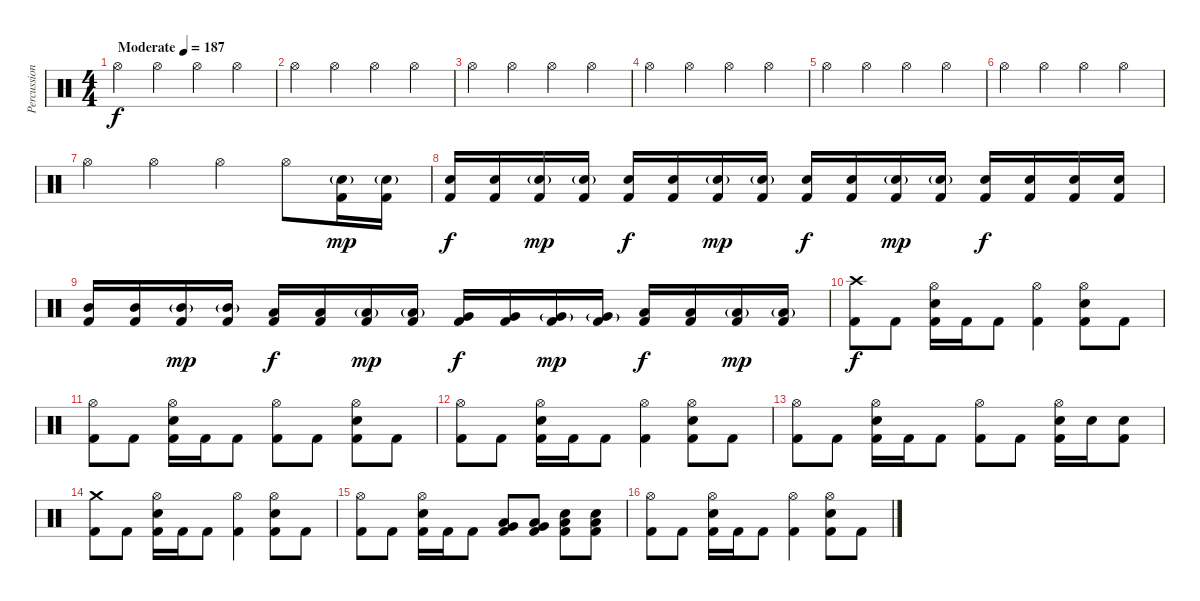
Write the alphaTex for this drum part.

\track ("Percussion" "Percussion") {instrument percussion}
\staff {score}
\articulation defaults
\ts (4 4)
\tempo (187 "Moderate")
\clef neutral
\ks c "Hi-Hat (open)".4{dy f} "Hi-Hat (open)".4 "Hi-Hat (open)".4 "Hi-Hat (open)".4
|
"Hi-Hat (open)".4 "Hi-Hat (open)".4 "Hi-Hat (open)".4 "Hi-Hat (open)".4 |
"Hi-Hat (open)".4 "Hi-Hat (open)".4 "Hi-Hat (open)".4 "Hi-Hat (open)".4 |
"Hi-Hat (open)".4 "Hi-Hat (open)".4 "Hi-Hat (open)".4 "Hi-Hat (open)".4 |
"Hi-Hat (open)".4 "Hi-Hat (open)".4 "Hi-Hat (open)".4 "Hi-Hat (open)".4 |
"Hi-Hat (open)".4 "Hi-Hat (open)".4 "Hi-Hat (open)".4 "Hi-Hat (open)".4 |
"Hi-Hat (open)".4 "Hi-Hat (open)".4 "Hi-Hat (open)".4 "Hi-Hat (open)".8 ("Electric Snare (hit)"{g} "Kick (hit) 2").16{dy mp} ("Electric Snare (hit)"{g} "Kick (hit) 2").16 |
("Electric Snare (hit)" "Kick (hit) 2").16{dy f} ("Electric Snare (hit)" "Kick (hit) 2").16 ("Electric Snare (hit)"{g} "Kick (hit) 2").16{dy mp} ("Electric Snare (hit)"{g} "Kick (hit) 2").16 ("Electric Snare (hit)" "Kick (hit) 2").16{dy f} ("Electric Snare (hit)" "Kick (hit) 2").16 ("Electric Snare (hit)"{g} "Kick (hit) 2").16{dy mp} ("Electric Snare (hit)"{g} "Kick (hit) 2").16 ("Electric Snare (hit)" "Kick (hit) 2").16{dy f} ("Electric Snare (hit)" "Kick (hit) 2").16 ("Electric Snare (hit)"{g} "Kick (hit) 2").16{dy mp} ("Electric Snare (hit)"{g} "Kick (hit) 2").16 ("Electric Snare (hit)" "Kick (hit) 2").16{dy f} ("Electric Snare (hit)" "Kick (hit) 2").16 ("Electric Snare (hit)" "Kick (hit) 2").16 ("Electric Snare (hit)" "Kick (hit) 2").16 |
("Mid Tom (hit)" "Kick (hit) 2").16 ("Mid Tom (hit)" "Kick (hit) 2").16 ("Mid Tom (hit)"{g} "Kick (hit) 2").16{dy mp} ("Mid Tom (hit)"{g} "Kick (hit) 2").16 ("Low Tom (hit)" "Kick (hit) 2").16{dy f} ("Low Tom (hit)" "Kick (hit) 2").16 ("Low Tom (hit)"{g} "Kick (hit) 2").16{dy mp} ("Low Tom (hit)"{g} "Kick (hit) 2").16 ("Very Low Tom (hit)" "Kick (hit) 2").16{dy f} ("Very Low Tom (hit)" "Kick (hit) 2").16 ("Very Low Tom (hit)"{g} "Kick (hit) 2").16{dy mp} ("Very Low Tom (hit)"{g} "Kick (hit) 2").16 ("Low Floor Tom (hit)" "Kick (hit) 2").16{dy f} ("Low Floor Tom (hit)" "Kick (hit) 2").16 ("Low Floor Tom (hit)"{g} "Kick (hit) 2").16{dy mp} ("Low Floor Tom (hit)"{g} "Kick (hit) 2").16 |
("Crash high (hit)" "Kick (hit) 2").8{dy f} "Kick (hit) 2".8 ("Hi-Hat (open)" "Electric Snare (hit)" "Kick (hit) 2").16 "Kick (hit) 2".16 "Kick (hit) 2".8 ("Hi-Hat (open)" "Kick (hit) 2").4 ("Hi-Hat (open)" "Electric Snare (hit)" "Kick (hit) 2").8 "Kick (hit) 2".8 |
("Hi-Hat (open)" "Kick (hit) 2").8 "Kick (hit) 2".8 ("Hi-Hat (open)" "Electric Snare (hit)" "Kick (hit) 2").16 "Kick (hit) 2".16 "Kick (hit) 2".8 ("Hi-Hat (open)" "Kick (hit) 2").8 "Kick (hit) 2".8 ("Hi-Hat (open)" "Electric Snare (hit)" "Kick (hit) 2").8 "Kick (hit) 2".8 |
("Hi-Hat (open)" "Kick (hit) 2").8 "Kick (hit) 2".8 ("Hi-Hat (open)" "Electric Snare (hit)" "Kick (hit) 2").16 "Kick (hit) 2".16 "Kick (hit) 2".8 ("Hi-Hat (open)" "Kick (hit) 2").4 ("Hi-Hat (open)" "Electric Snare (hit)" "Kick (hit) 2").8 "Kick (hit) 2".8 |
("Hi-Hat (open)" "Kick (hit) 2").8 "Kick (hit) 2".8 ("Hi-Hat (open)" "Electric Snare (hit)" "Kick (hit) 2").16 "Kick (hit) 2".16 "Kick (hit) 2".8 ("Hi-Hat (open)" "Kick (hit) 2").8 "Kick (hit) 2".8 ("Hi-Hat (open)" "Electric Snare (hit)" "Kick (hit) 2").16 "Electric Snare (hit)".16 ("Electric Snare (hit)" "Kick (hit) 2").8 |
("Crash medium (hit)" "Kick (hit) 2").8 "Kick (hit) 2".8 ("Hi-Hat (open)" "Electric Snare (hit)" "Kick (hit) 2").16 "Kick (hit) 2".16 "Kick (hit) 2".8 ("Hi-Hat (open)" "Kick (hit) 2").4 ("Hi-Hat (open)" "Electric Snare (hit)" "Kick (hit) 2").8 "Kick (hit) 2".8 |
("Hi-Hat (open)" "Kick (hit) 2").8 "Kick (hit) 2".8 ("Hi-Hat (open)" "Electric Snare (hit)" "Kick (hit) 2").16 "Kick (hit) 2".16 "Kick (hit) 2".8 ("Low Tom (hit)" "Very Low Tom (hit)" "Kick (hit) 2").8 ("Low Tom (hit)" "Very Low Tom (hit)" "Kick (hit) 2").8 ("Low Floor Tom (hit)" "Electric Snare (hit)" "Kick (hit) 2").8 ("Low Floor Tom (hit)" "Electric Snare (hit)" "Kick (hit) 2").8 |
("Hi-Hat (open)" "Kick (hit) 2").8 "Kick (hit) 2".8 ("Hi-Hat (open)" "Electric Snare (hit)" "Kick (hit) 2").16 "Kick (hit) 2".16 "Kick (hit) 2".8 ("Hi-Hat (open)" "Kick (hit) 2").4 ("Hi-Hat (open)" "Electric Snare (hit)" "Kick (hit) 2").8 "Kick (hit) 2".8
